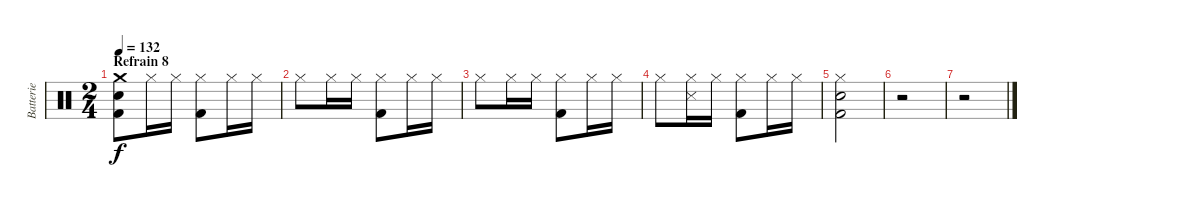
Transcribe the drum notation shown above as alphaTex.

\track ("Batterie" "Batterie") {instrument percussion}
\staff {score}
\articulation defaults
\ts (2 4)
\section ("" "Refrain 8")
\tempo 132
\clef neutral
\ks c
("Crash medium (hit)" "Snare (hit) 2" "Kick (hit) 2").8{dy f} "Hi-Hat (closed)".16 "Hi-Hat (closed)".16 ("Hi-Hat (closed)" "Kick (hit) 2").8 "Hi-Hat (closed)".16 "Hi-Hat (closed)".16 |
"Hi-Hat (closed)".8 "Hi-Hat (closed)".16 "Hi-Hat (closed)".16 ("Hi-Hat (closed)" "Kick (hit) 2").8 "Hi-Hat (closed)".16 "Hi-Hat (closed)".16 |
"Hi-Hat (closed)".8 "Hi-Hat (closed)".16 "Hi-Hat (closed)".16 ("Hi-Hat (closed)" "Kick (hit) 2").8 "Hi-Hat (closed)".16 "Hi-Hat (closed)".16 |
"Hi-Hat (closed)".8 ("Hi-Hat (closed)" "Snare (side stick) 3").16 "Hi-Hat (closed)".16 ("Hi-Hat (closed)" "Kick (hit) 2").8 "Hi-Hat (closed)".16 "Hi-Hat (closed)".16 |
("Hi-Hat (closed)" "Snare (hit) 2" "Kick (hit) 2").2 |
r.2 |
r.2
